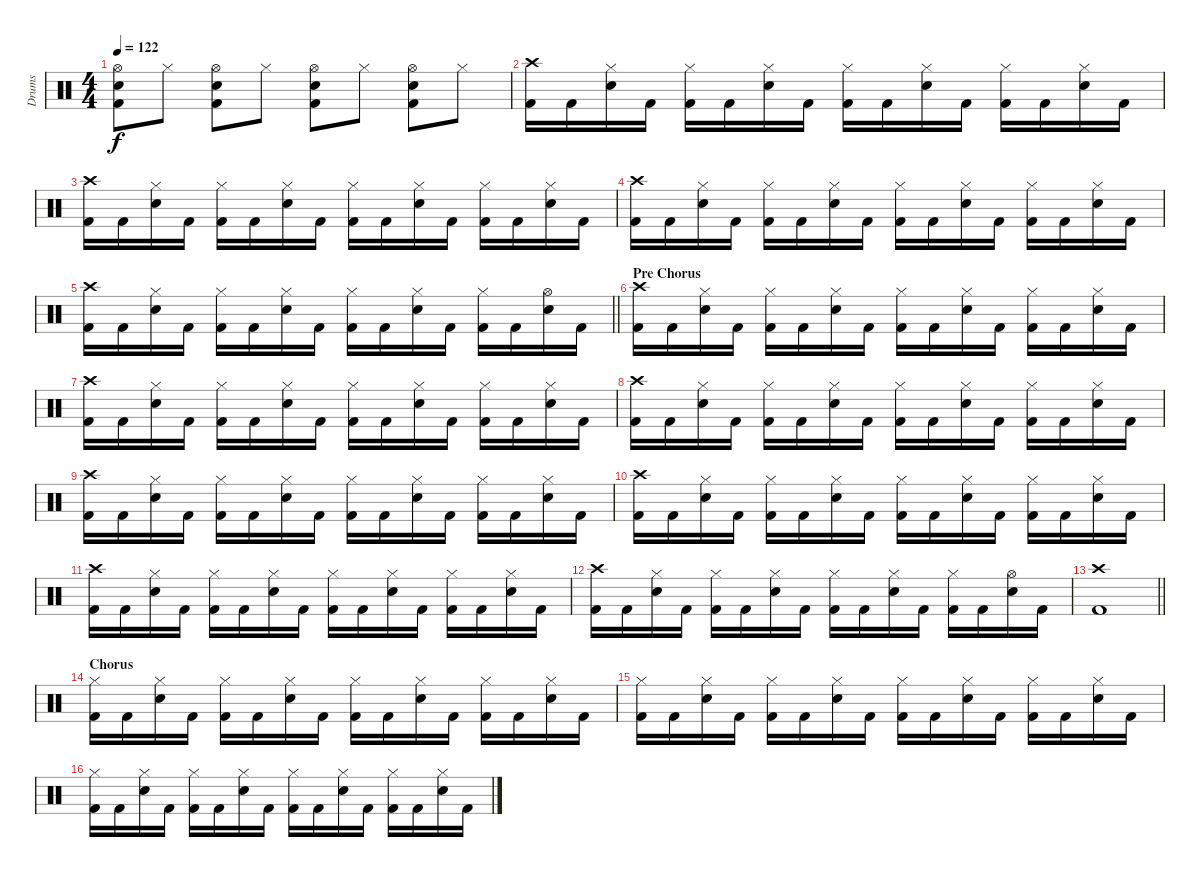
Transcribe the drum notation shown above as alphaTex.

\track ("Drums" "Drums") {instrument percussion}
\staff {score}
\articulation defaults
\ts (4 4)
\tempo 122
\clef neutral
\ks c
("Hi-Hat (open)" "Snare (hit) 2" "Kick (hit) 2").8{dy f} "Hi-Hat (closed)".8 ("Hi-Hat (open)" "Snare (hit) 2" "Kick (hit) 2").8 "Hi-Hat (closed)".8 ("Hi-Hat (open)" "Snare (hit) 2" "Kick (hit) 2").8 "Hi-Hat (closed)".8 ("Hi-Hat (open)" "Snare (hit) 2" "Kick (hit) 2").8 "Hi-Hat (closed)".8 |
("Crash high (hit)" "Kick (hit) 2").16 "Kick (hit) 2".16 ("Hi-Hat (closed)" "Snare (hit) 2").16 "Kick (hit) 2".16 ("Hi-Hat (closed)" "Kick (hit) 2").16 "Kick (hit) 2".16 ("Hi-Hat (closed)" "Snare (hit) 2").16 "Kick (hit) 2".16 ("Hi-Hat (closed)" "Kick (hit) 2").16 "Kick (hit) 2".16 ("Hi-Hat (closed)" "Snare (hit) 2").16 "Kick (hit) 2".16 ("Hi-Hat (closed)" "Kick (hit) 2").16 "Kick (hit) 2".16 ("Hi-Hat (closed)" "Snare (hit) 2").16 "Kick (hit) 2".16 |
("Crash high (hit)" "Kick (hit) 2").16 "Kick (hit) 2".16 ("Hi-Hat (closed)" "Snare (hit) 2").16 "Kick (hit) 2".16 ("Hi-Hat (closed)" "Kick (hit) 2").16 "Kick (hit) 2".16 ("Hi-Hat (closed)" "Snare (hit) 2").16 "Kick (hit) 2".16 ("Hi-Hat (closed)" "Kick (hit) 2").16 "Kick (hit) 2".16 ("Hi-Hat (closed)" "Snare (hit) 2").16 "Kick (hit) 2".16 ("Hi-Hat (closed)" "Kick (hit) 2").16 "Kick (hit) 2".16 ("Hi-Hat (closed)" "Snare (hit) 2").16 "Kick (hit) 2".16 |
("Crash high (hit)" "Kick (hit) 2").16 "Kick (hit) 2".16 ("Hi-Hat (closed)" "Snare (hit) 2").16 "Kick (hit) 2".16 ("Hi-Hat (closed)" "Kick (hit) 2").16 "Kick (hit) 2".16 ("Hi-Hat (closed)" "Snare (hit) 2").16 "Kick (hit) 2".16 ("Hi-Hat (closed)" "Kick (hit) 2").16 "Kick (hit) 2".16 ("Hi-Hat (closed)" "Snare (hit) 2").16 "Kick (hit) 2".16 ("Hi-Hat (closed)" "Kick (hit) 2").16 "Kick (hit) 2".16 ("Hi-Hat (closed)" "Snare (hit) 2").16 "Kick (hit) 2".16 |
\barLineRight lightlight
("Crash high (hit)" "Kick (hit) 2").16 "Kick (hit) 2".16 ("Hi-Hat (closed)" "Snare (hit) 2").16 "Kick (hit) 2".16 ("Hi-Hat (closed)" "Kick (hit) 2").16 "Kick (hit) 2".16 ("Hi-Hat (closed)" "Snare (hit) 2").16 "Kick (hit) 2".16 ("Hi-Hat (closed)" "Kick (hit) 2").16 "Kick (hit) 2".16 ("Hi-Hat (closed)" "Snare (hit) 2").16 "Kick (hit) 2".16 ("Hi-Hat (closed)" "Kick (hit) 2").16 "Kick (hit) 2".16 ("Hi-Hat (open)" "Snare (hit) 2").16 "Kick (hit) 2".16 |
\section ("" "Pre Chorus")
("Crash high (hit)" "Kick (hit) 2").16 "Kick (hit) 2".16 ("Hi-Hat (closed)" "Snare (hit) 2").16 "Kick (hit) 2".16 ("Hi-Hat (closed)" "Kick (hit) 2").16 "Kick (hit) 2".16 ("Hi-Hat (closed)" "Snare (hit) 2").16 "Kick (hit) 2".16 ("Hi-Hat (closed)" "Kick (hit) 2").16 "Kick (hit) 2".16 ("Hi-Hat (closed)" "Snare (hit) 2").16 "Kick (hit) 2".16 ("Hi-Hat (closed)" "Kick (hit) 2").16 "Kick (hit) 2".16 ("Hi-Hat (closed)" "Snare (hit) 2").16 "Kick (hit) 2".16 |
("Crash high (hit)" "Kick (hit) 2").16 "Kick (hit) 2".16 ("Hi-Hat (closed)" "Snare (hit) 2").16 "Kick (hit) 2".16 ("Hi-Hat (closed)" "Kick (hit) 2").16 "Kick (hit) 2".16 ("Hi-Hat (closed)" "Snare (hit) 2").16 "Kick (hit) 2".16 ("Hi-Hat (closed)" "Kick (hit) 2").16 "Kick (hit) 2".16 ("Hi-Hat (closed)" "Snare (hit) 2").16 "Kick (hit) 2".16 ("Hi-Hat (closed)" "Kick (hit) 2").16 "Kick (hit) 2".16 ("Hi-Hat (closed)" "Snare (hit) 2").16 "Kick (hit) 2".16 |
("Crash high (hit)" "Kick (hit) 2").16 "Kick (hit) 2".16 ("Hi-Hat (closed)" "Snare (hit) 2").16 "Kick (hit) 2".16 ("Hi-Hat (closed)" "Kick (hit) 2").16 "Kick (hit) 2".16 ("Hi-Hat (closed)" "Snare (hit) 2").16 "Kick (hit) 2".16 ("Hi-Hat (closed)" "Kick (hit) 2").16 "Kick (hit) 2".16 ("Hi-Hat (closed)" "Snare (hit) 2").16 "Kick (hit) 2".16 ("Hi-Hat (closed)" "Kick (hit) 2").16 "Kick (hit) 2".16 ("Hi-Hat (closed)" "Snare (hit) 2").16 "Kick (hit) 2".16 |
("Crash high (hit)" "Kick (hit) 2").16 "Kick (hit) 2".16 ("Hi-Hat (closed)" "Snare (hit) 2").16 "Kick (hit) 2".16 ("Hi-Hat (closed)" "Kick (hit) 2").16 "Kick (hit) 2".16 ("Hi-Hat (closed)" "Snare (hit) 2").16 "Kick (hit) 2".16 ("Hi-Hat (closed)" "Kick (hit) 2").16 "Kick (hit) 2".16 ("Hi-Hat (closed)" "Snare (hit) 2").16 "Kick (hit) 2".16 ("Hi-Hat (closed)" "Kick (hit) 2").16 "Kick (hit) 2".16 ("Hi-Hat (closed)" "Snare (hit) 2").16 "Kick (hit) 2".16 |
("Crash high (hit)" "Kick (hit) 2").16 "Kick (hit) 2".16 ("Hi-Hat (closed)" "Snare (hit) 2").16 "Kick (hit) 2".16 ("Hi-Hat (closed)" "Kick (hit) 2").16 "Kick (hit) 2".16 ("Hi-Hat (closed)" "Snare (hit) 2").16 "Kick (hit) 2".16 ("Hi-Hat (closed)" "Kick (hit) 2").16 "Kick (hit) 2".16 ("Hi-Hat (closed)" "Snare (hit) 2").16 "Kick (hit) 2".16 ("Hi-Hat (closed)" "Kick (hit) 2").16 "Kick (hit) 2".16 ("Hi-Hat (closed)" "Snare (hit) 2").16 "Kick (hit) 2".16 |
("Crash high (hit)" "Kick (hit) 2").16 "Kick (hit) 2".16 ("Hi-Hat (closed)" "Snare (hit) 2").16 "Kick (hit) 2".16 ("Hi-Hat (closed)" "Kick (hit) 2").16 "Kick (hit) 2".16 ("Hi-Hat (closed)" "Snare (hit) 2").16 "Kick (hit) 2".16 ("Hi-Hat (closed)" "Kick (hit) 2").16 "Kick (hit) 2".16 ("Hi-Hat (closed)" "Snare (hit) 2").16 "Kick (hit) 2".16 ("Hi-Hat (closed)" "Kick (hit) 2").16 "Kick (hit) 2".16 ("Hi-Hat (closed)" "Snare (hit) 2").16 "Kick (hit) 2".16 |
("Crash high (hit)" "Kick (hit) 2").16 "Kick (hit) 2".16 ("Hi-Hat (closed)" "Snare (hit) 2").16 "Kick (hit) 2".16 ("Hi-Hat (closed)" "Kick (hit) 2").16 "Kick (hit) 2".16 ("Hi-Hat (closed)" "Snare (hit) 2").16 "Kick (hit) 2".16 ("Hi-Hat (closed)" "Kick (hit) 2").16 "Kick (hit) 2".16 ("Hi-Hat (closed)" "Snare (hit) 2").16 "Kick (hit) 2".16 ("Hi-Hat (closed)" "Kick (hit) 2").16 "Kick (hit) 2".16 ("Hi-Hat (open)" "Snare (hit) 2").16 "Kick (hit) 2".16 |
\barLineRight lightlight
("Crash high (hit)" "Kick (hit) 2").1 |
\section ("" "Chorus")
("Hi-Hat (closed)" "Kick (hit) 2").16 "Kick (hit) 2".16 ("Hi-Hat (closed)" "Snare (hit) 2").16 "Kick (hit) 2".16 ("Hi-Hat (closed)" "Kick (hit) 2").16 "Kick (hit) 2".16 ("Hi-Hat (closed)" "Snare (hit) 2").16 "Kick (hit) 2".16 ("Hi-Hat (closed)" "Kick (hit) 2").16 "Kick (hit) 2".16 ("Hi-Hat (closed)" "Snare (hit) 2").16 "Kick (hit) 2".16 ("Hi-Hat (closed)" "Kick (hit) 2").16 "Kick (hit) 2".16 ("Hi-Hat (closed)" "Snare (hit) 2").16 "Kick (hit) 2".16 |
("Hi-Hat (closed)" "Kick (hit) 2").16 "Kick (hit) 2".16 ("Hi-Hat (closed)" "Snare (hit) 2").16 "Kick (hit) 2".16 ("Hi-Hat (closed)" "Kick (hit) 2").16 "Kick (hit) 2".16 ("Hi-Hat (closed)" "Snare (hit) 2").16 "Kick (hit) 2".16 ("Hi-Hat (closed)" "Kick (hit) 2").16 "Kick (hit) 2".16 ("Hi-Hat (closed)" "Snare (hit) 2").16 "Kick (hit) 2".16 ("Hi-Hat (closed)" "Kick (hit) 2").16 "Kick (hit) 2".16 ("Hi-Hat (closed)" "Snare (hit) 2").16 "Kick (hit) 2".16 |
("Hi-Hat (closed)" "Kick (hit) 2").16 "Kick (hit) 2".16 ("Hi-Hat (closed)" "Snare (hit) 2").16 "Kick (hit) 2".16 ("Hi-Hat (closed)" "Kick (hit) 2").16 "Kick (hit) 2".16 ("Hi-Hat (closed)" "Snare (hit) 2").16 "Kick (hit) 2".16 ("Hi-Hat (closed)" "Kick (hit) 2").16 "Kick (hit) 2".16 ("Hi-Hat (closed)" "Snare (hit) 2").16 "Kick (hit) 2".16 ("Hi-Hat (closed)" "Kick (hit) 2").16 "Kick (hit) 2".16 ("Hi-Hat (closed)" "Snare (hit) 2").16 "Kick (hit) 2".16
